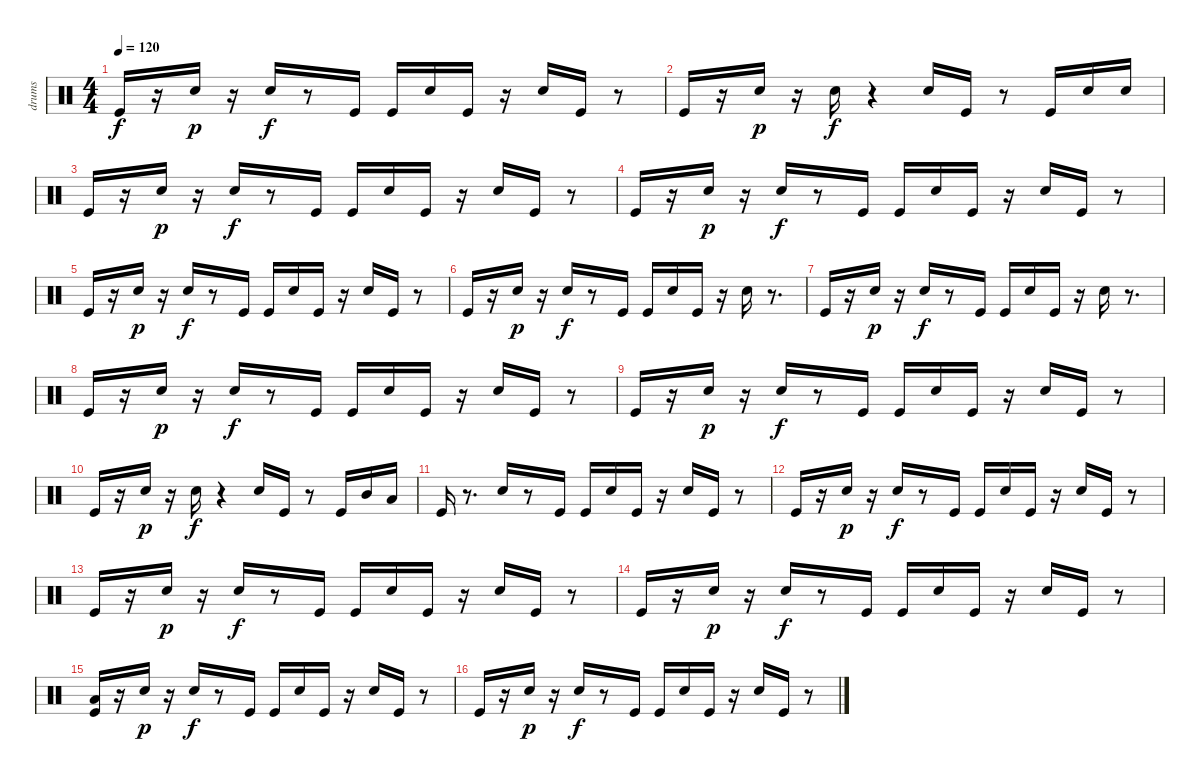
\track ("drums" "drums") {instrument percussion}
\staff {score}
\articulation defaults
\ts (4 4)
\tempo 120
\clef neutral
\ks c "Kick (hit)".16{dy f}
r.16 "Electric Snare (hit)".16{dy p} r.16 "Electric Snare (hit)".16{dy f} r.8 "Kick (hit)".16 "Kick (hit)".16 "Electric Snare (hit)".16 "Kick (hit)".16 r.16 "Electric Snare (hit)".16 "Kick (hit)".16 r.8 |
"Kick (hit)".16 r.16 "Electric Snare (hit)".16{dy p} r.16 "Electric Snare (hit)".16{dy f} r.4 "Electric Snare (hit)".16 "Kick (hit)".16 r.8 "Kick (hit)".16 "Electric Snare (hit)".16 "Electric Snare (hit)".16 |
"Kick (hit)".16 r.16 "Electric Snare (hit)".16{dy p} r.16 "Electric Snare (hit)".16{dy f} r.8 "Kick (hit)".16 "Kick (hit)".16 "Electric Snare (hit)".16 "Kick (hit)".16 r.16 "Electric Snare (hit)".16 "Kick (hit)".16 r.8 |
"Kick (hit)".16 r.16 "Electric Snare (hit)".16{dy p} r.16 "Electric Snare (hit)".16{dy f} r.8 "Kick (hit)".16 "Kick (hit)".16 "Electric Snare (hit)".16 "Kick (hit)".16 r.16 "Electric Snare (hit)".16 "Kick (hit)".16 r.8 |
"Kick (hit)".16 r.16 "Electric Snare (hit)".16{dy p} r.16 "Electric Snare (hit)".16{dy f} r.8 "Kick (hit)".16 "Kick (hit)".16 "Electric Snare (hit)".16 "Kick (hit)".16 r.16 "Electric Snare (hit)".16 "Kick (hit)".16 r.8 |
"Kick (hit)".16 r.16 "Electric Snare (hit)".16{dy p} r.16 "Electric Snare (hit)".16{dy f} r.8 "Kick (hit)".16 "Kick (hit)".16 "Electric Snare (hit)".16 "Kick (hit)".16 r.16 "Electric Snare (hit)".16 r.8{d} |
"Kick (hit)".16 r.16 "Electric Snare (hit)".16{dy p} r.16 "Electric Snare (hit)".16{dy f} r.8 "Kick (hit)".16 "Kick (hit)".16 "Electric Snare (hit)".16 "Kick (hit)".16 r.16 "Electric Snare (hit)".16 r.8{d} |
"Kick (hit)".16 r.16 "Electric Snare (hit)".16{dy p} r.16 "Electric Snare (hit)".16{dy f} r.8 "Kick (hit)".16 "Kick (hit)".16 "Electric Snare (hit)".16 "Kick (hit)".16 r.16 "Electric Snare (hit)".16 "Kick (hit)".16 r.8 |
"Kick (hit)".16 r.16 "Electric Snare (hit)".16{dy p} r.16 "Electric Snare (hit)".16{dy f} r.8 "Kick (hit)".16 "Kick (hit)".16 "Electric Snare (hit)".16 "Kick (hit)".16 r.16 "Electric Snare (hit)".16 "Kick (hit)".16 r.8 |
"Kick (hit)".16 r.16 "Electric Snare (hit)".16{dy p} r.16 "Electric Snare (hit)".16{dy f} r.4 "Electric Snare (hit)".16 "Kick (hit)".16 r.8 "Kick (hit)".16 "Mid Tom (hit)".16 "Low Tom (hit)".16 |
"Kick (hit)".16 r.8{d} "Electric Snare (hit)".16 r.8 "Kick (hit)".16 "Kick (hit)".16 "Electric Snare (hit)".16 "Kick (hit)".16 r.16 "Electric Snare (hit)".16 "Kick (hit)".16 r.8 |
"Kick (hit)".16 r.16 "Electric Snare (hit)".16{dy p} r.16 "Electric Snare (hit)".16{dy f} r.8 "Kick (hit)".16 "Kick (hit)".16 "Electric Snare (hit)".16 "Kick (hit)".16 r.16 "Electric Snare (hit)".16 "Kick (hit)".16 r.8 |
"Kick (hit)".16 r.16 "Electric Snare (hit)".16{dy p} r.16 "Electric Snare (hit)".16{dy f} r.8 "Kick (hit)".16 "Kick (hit)".16 "Electric Snare (hit)".16 "Kick (hit)".16 r.16 "Electric Snare (hit)".16 "Kick (hit)".16 r.8 |
"Kick (hit)".16 r.16 "Electric Snare (hit)".16{dy p} r.16 "Electric Snare (hit)".16{dy f} r.8 "Kick (hit)".16 "Kick (hit)".16 "Electric Snare (hit)".16 "Kick (hit)".16 r.16 "Electric Snare (hit)".16 "Kick (hit)".16 r.8 |
("Low Tom (hit)" "Kick (hit)").16 r.16 "Electric Snare (hit)".16{dy p} r.16 "Electric Snare (hit)".16{dy f} r.8 "Kick (hit)".16 "Kick (hit)".16 "Electric Snare (hit)".16 "Kick (hit)".16 r.16 "Electric Snare (hit)".16 "Kick (hit)".16 r.8 |
"Kick (hit)".16 r.16 "Electric Snare (hit)".16{dy p} r.16 "Electric Snare (hit)".16{dy f} r.8 "Kick (hit)".16 "Kick (hit)".16 "Electric Snare (hit)".16 "Kick (hit)".16 r.16 "Electric Snare (hit)".16 "Kick (hit)".16 r.8
